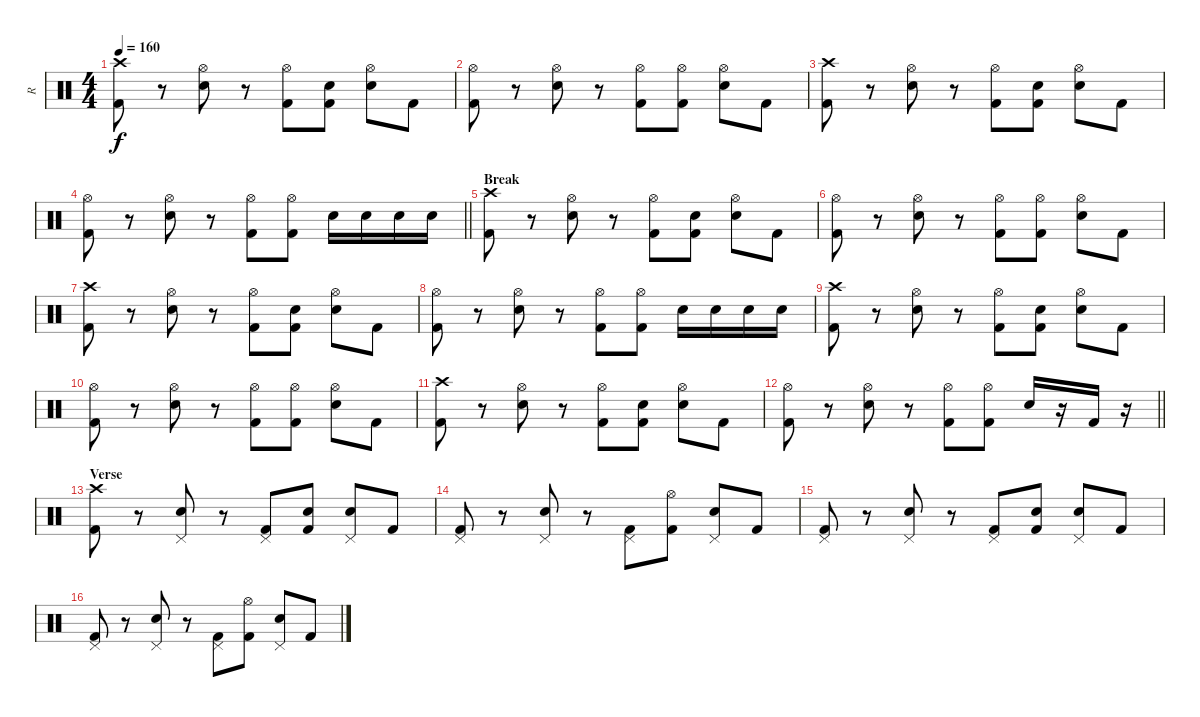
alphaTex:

\track ("R" "R") {instrument percussion}
\staff {score}
\articulation defaults
\ts (4 4)
\tempo 160
\clef neutral
\ks c
("Crash high (hit)" "Kick (hit) 2").8{dy f} r.8 ("Hi-Hat (open)" "Electric Snare (hit)").8 r.8 ("Hi-Hat (open)" "Kick (hit) 2").8 ("Electric Snare (hit)" "Kick (hit) 2").8 ("Hi-Hat (open)" "Electric Snare (hit)").8 "Kick (hit) 2".8 |
("Hi-Hat (open)" "Kick (hit) 2").8 r.8 ("Hi-Hat (open)" "Electric Snare (hit)").8 r.8 ("Hi-Hat (open)" "Kick (hit) 2").8 ("Hi-Hat (open)" "Kick (hit) 2").8 ("Hi-Hat (open)" "Electric Snare (hit)").8 "Kick (hit) 2".8 |
("Crash high (hit)" "Kick (hit) 2").8 r.8 ("Hi-Hat (open)" "Electric Snare (hit)").8 r.8 ("Hi-Hat (open)" "Kick (hit) 2").8 ("Electric Snare (hit)" "Kick (hit) 2").8 ("Hi-Hat (open)" "Electric Snare (hit)").8 "Kick (hit) 2".8 |
\barLineRight lightlight
("Hi-Hat (open)" "Kick (hit) 2").8 r.8 ("Hi-Hat (open)" "Electric Snare (hit)").8 r.8 ("Hi-Hat (open)" "Kick (hit) 2").8 ("Hi-Hat (open)" "Kick (hit) 2").8 "Electric Snare (hit)".16 "Electric Snare (hit)".16 "Electric Snare (hit)".16 "Electric Snare (hit)".16 |
\section ("" "Break")
("Crash high (hit)" "Kick (hit) 2").8 r.8 ("Hi-Hat (open)" "Electric Snare (hit)").8 r.8 ("Hi-Hat (open)" "Kick (hit) 2").8 ("Electric Snare (hit)" "Kick (hit) 2").8 ("Hi-Hat (open)" "Electric Snare (hit)").8 "Kick (hit) 2".8 |
("Hi-Hat (open)" "Kick (hit) 2").8 r.8 ("Hi-Hat (open)" "Electric Snare (hit)").8 r.8 ("Hi-Hat (open)" "Kick (hit) 2").8 ("Hi-Hat (open)" "Kick (hit) 2").8 ("Hi-Hat (open)" "Electric Snare (hit)").8 "Kick (hit) 2".8 |
("Crash high (hit)" "Kick (hit) 2").8 r.8 ("Hi-Hat (open)" "Electric Snare (hit)").8 r.8 ("Hi-Hat (open)" "Kick (hit) 2").8 ("Electric Snare (hit)" "Kick (hit) 2").8 ("Hi-Hat (open)" "Electric Snare (hit)").8 "Kick (hit) 2".8 |
("Hi-Hat (open)" "Kick (hit) 2").8 r.8 ("Hi-Hat (open)" "Electric Snare (hit)").8 r.8 ("Hi-Hat (open)" "Kick (hit) 2").8 ("Hi-Hat (open)" "Kick (hit) 2").8 "Electric Snare (hit)".16 "Electric Snare (hit)".16 "Electric Snare (hit)".16 "Electric Snare (hit)".16 |
("Crash high (hit)" "Kick (hit) 2").8 r.8 ("Hi-Hat (open)" "Electric Snare (hit)").8 r.8 ("Hi-Hat (open)" "Kick (hit) 2").8 ("Electric Snare (hit)" "Kick (hit) 2").8 ("Hi-Hat (open)" "Electric Snare (hit)").8 "Kick (hit) 2".8 |
("Hi-Hat (open)" "Kick (hit) 2").8 r.8 ("Hi-Hat (open)" "Electric Snare (hit)").8 r.8 ("Hi-Hat (open)" "Kick (hit) 2").8 ("Hi-Hat (open)" "Kick (hit) 2").8 ("Hi-Hat (open)" "Electric Snare (hit)").8 "Kick (hit) 2".8 |
("Crash high (hit)" "Kick (hit) 2").8 r.8 ("Hi-Hat (open)" "Electric Snare (hit)").8 r.8 ("Hi-Hat (open)" "Kick (hit) 2").8 ("Electric Snare (hit)" "Kick (hit) 2").8 ("Hi-Hat (open)" "Electric Snare (hit)").8 "Kick (hit) 2".8 |
\barLineRight lightlight
("Hi-Hat (open)" "Kick (hit) 2").8 r.8 ("Hi-Hat (open)" "Electric Snare (hit)").8 r.8 ("Hi-Hat (open)" "Kick (hit) 2").8 ("Hi-Hat (open)" "Kick (hit) 2").8 "Electric Snare (hit)".16 r.16 "Kick (hit) 2".16 r.16 |
\section ("" "Verse")
("Crash high (hit)" "Kick (hit) 2").8 r.8 ("Pedal Hi-Hat (hit)" "Electric Snare (hit)").8 r.8 ("Pedal Hi-Hat (hit)" "Kick (hit) 2").8 ("Electric Snare (hit)" "Kick (hit) 2").8 ("Pedal Hi-Hat (hit)" "Electric Snare (hit)").8 "Kick (hit) 2".8 |
("Pedal Hi-Hat (hit)" "Kick (hit) 2").8 r.8 ("Pedal Hi-Hat (hit)" "Electric Snare (hit)").8 r.8 ("Pedal Hi-Hat (hit)" "Kick (hit) 2").8 ("Hi-Hat (open)" "Kick (hit) 2").8 ("Pedal Hi-Hat (hit)" "Electric Snare (hit)").8 "Kick (hit) 2".8 |
("Pedal Hi-Hat (hit)" "Kick (hit) 2").8 r.8 ("Pedal Hi-Hat (hit)" "Electric Snare (hit)").8 r.8 ("Pedal Hi-Hat (hit)" "Kick (hit) 2").8 ("Electric Snare (hit)" "Kick (hit) 2").8 ("Pedal Hi-Hat (hit)" "Electric Snare (hit)").8 "Kick (hit) 2".8 |
("Pedal Hi-Hat (hit)" "Kick (hit) 2").8 r.8 ("Pedal Hi-Hat (hit)" "Electric Snare (hit)").8 r.8 ("Pedal Hi-Hat (hit)" "Kick (hit) 2").8 ("Hi-Hat (open)" "Kick (hit) 2").8 ("Pedal Hi-Hat (hit)" "Electric Snare (hit)").8 "Kick (hit) 2".8
